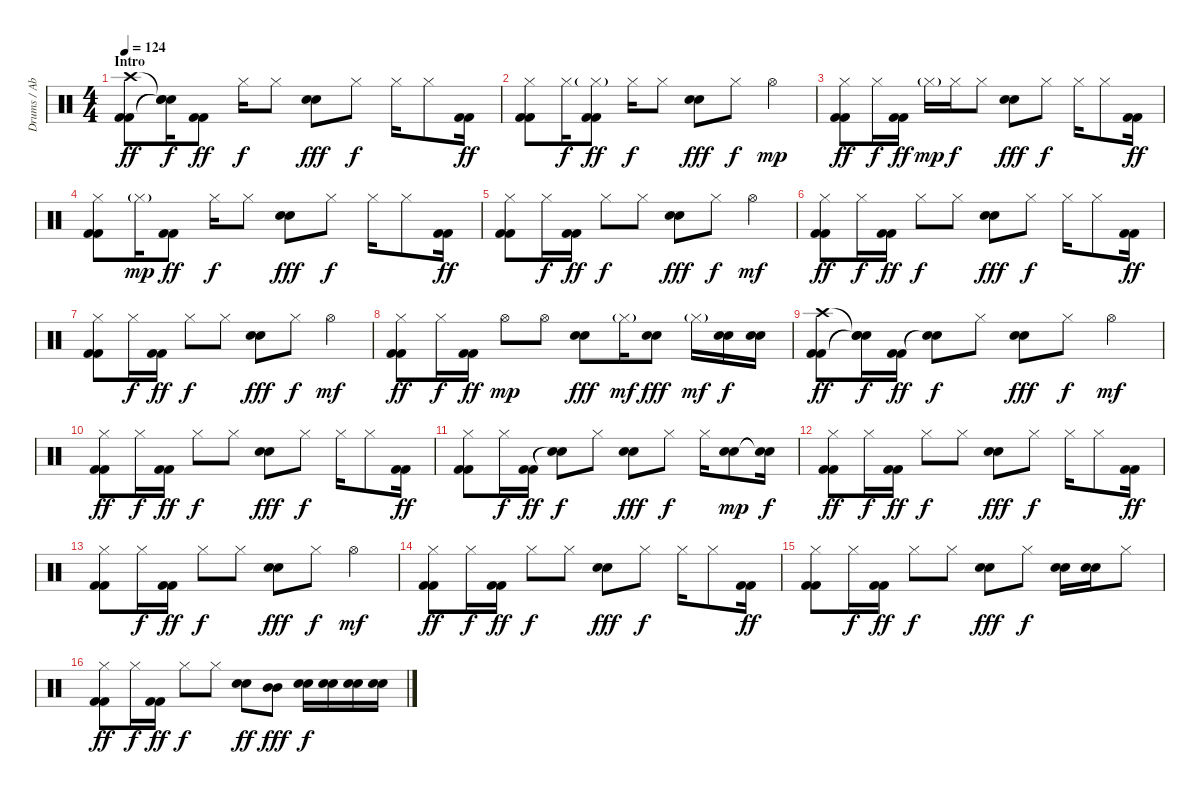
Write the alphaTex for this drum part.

\track ("Drums / Abe Cunningham" "Drums / Ab") {instrument percussion}
\staff {score}
\articulation defaults
\ts (4 4)
\section ("" "Intro")
\tempo 124
\clef neutral
\ks c
("Crash high (hit)" "Kick (hit) 2" "Kick (hit) 2").8{dy ff} ("Snare (hit)"{t} "Snare (hit)"{t} "Snare (hit)"{t}).16{dy f} ("Kick (hit) 2" "Kick (hit) 2").8{dy ff} "Hi-Hat (closed)".16{dy f} "Hi-Hat (closed)".8 ("Electric Snare (hit)" "Electric Snare (hit)").8{dy fff} "Hi-Hat (closed)".8{dy f} "Hi-Hat (closed)".16 "Hi-Hat (closed)".8 ("Kick (hit) 2" "Kick (hit) 2").16{dy ff} |
("Hi-Hat (closed)" "Kick (hit) 2" "Kick (hit) 2").8 "Hi-Hat (closed)".16{dy f} ("Hi-Hat (closed)"{g} "Kick (hit) 2" "Kick (hit) 2").8{dy ff} "Hi-Hat (closed)".16{dy f} "Hi-Hat (closed)".8 ("Electric Snare (hit)" "Electric Snare (hit)").8{dy fff} "Hi-Hat (closed)".8{dy f} "Hi-Hat (open)".4{dy mp} |
("Hi-Hat (closed)" "Kick (hit) 2" "Kick (hit) 2").8{dy ff} "Hi-Hat (closed)".16{dy f} ("Kick (hit) 2" "Kick (hit) 2").16{dy ff} "Hi-Hat (closed)"{g}.16{dy mp} "Hi-Hat (closed)".16{dy f} "Hi-Hat (closed)".8 ("Electric Snare (hit)" "Electric Snare (hit)").8{dy fff} "Hi-Hat (closed)".8{dy f} "Hi-Hat (closed)".16 "Hi-Hat (closed)".8 ("Kick (hit) 2" "Kick (hit) 2").16{dy ff} |
("Hi-Hat (closed)" "Kick (hit) 2" "Kick (hit) 2").8 "Hi-Hat (closed)"{g}.16{dy mp} ("Kick (hit) 2" "Kick (hit) 2").8{dy ff} "Hi-Hat (closed)".16{dy f} "Hi-Hat (closed)".8 ("Electric Snare (hit)" "Electric Snare (hit)").8{dy fff} "Hi-Hat (closed)".8{dy f} "Hi-Hat (closed)".16 "Hi-Hat (closed)".8 ("Kick (hit) 2" "Kick (hit) 2").16{dy ff} |
("Hi-Hat (closed)" "Kick (hit) 2" "Kick (hit) 2").8 "Hi-Hat (closed)".16{dy f} ("Kick (hit) 2" "Kick (hit) 2").16{dy ff} "Hi-Hat (closed)".8{dy f} "Hi-Hat (closed)".8 ("Electric Snare (hit)" "Electric Snare (hit)").8{dy fff} "Hi-Hat (closed)".8{dy f} "Hi-Hat (open)".4{dy mf} |
("Hi-Hat (closed)" "Kick (hit) 2" "Kick (hit) 2").8{dy ff} "Hi-Hat (closed)".16{dy f} ("Kick (hit) 2" "Kick (hit) 2").16{dy ff} "Hi-Hat (closed)".8{dy f} "Hi-Hat (closed)".8 ("Electric Snare (hit)" "Electric Snare (hit)").8{dy fff} "Hi-Hat (closed)".8{dy f} "Hi-Hat (closed)".16 "Hi-Hat (closed)".8 ("Kick (hit) 2" "Kick (hit) 2").16{dy ff} |
("Hi-Hat (closed)" "Kick (hit) 2" "Kick (hit) 2").8 "Hi-Hat (closed)".16{dy f} ("Kick (hit) 2" "Kick (hit) 2").16{dy ff} "Hi-Hat (closed)".8{dy f} "Hi-Hat (closed)".8 ("Electric Snare (hit)" "Electric Snare (hit)").8{dy fff} "Hi-Hat (closed)".8{dy f} "Hi-Hat (open)".4{dy mf} |
("Hi-Hat (closed)" "Kick (hit) 2" "Kick (hit) 2").8{dy ff} "Hi-Hat (closed)".16{dy f} ("Kick (hit) 2" "Kick (hit) 2").16{dy ff} "Hi-Hat (open)".8{dy mp} "Hi-Hat (open)".8 ("Electric Snare (hit)" "Electric Snare (hit)").8{dy fff} "Hi-Hat (closed)"{g}.16{dy mf} ("Electric Snare (hit)" "Electric Snare (hit)").8{dy fff} "Hi-Hat (closed)"{g}.16{dy mf} ("Electric Snare (hit)" "Electric Snare (hit)").16{dy f} ("Electric Snare (hit)" "Electric Snare (hit)").16 |
("Crash high (hit)" "Kick (hit) 2" "Kick (hit) 2").8{dy ff} ("Snare (hit)"{t} "Snare (hit)"{t} "Snare (hit)"{t}).16{dy f} ("Kick (hit) 2" "Kick (hit) 2").16{dy ff} ("Snare (hit)"{t} "Snare (hit)"{t}).8{dy f} "Hi-Hat (closed)".8 ("Electric Snare (hit)" "Electric Snare (hit)").8{dy fff} "Hi-Hat (closed)".8{dy f} "Hi-Hat (open)".4{dy mf} |
("Hi-Hat (closed)" "Kick (hit) 2" "Kick (hit) 2").8{dy ff} "Hi-Hat (closed)".16{dy f} ("Kick (hit) 2" "Kick (hit) 2").16{dy ff} "Hi-Hat (closed)".8{dy f} "Hi-Hat (closed)".8 ("Electric Snare (hit)" "Electric Snare (hit)").8{dy fff} "Hi-Hat (closed)".8{dy f} "Hi-Hat (closed)".16 "Hi-Hat (closed)".8 ("Kick (hit) 2" "Kick (hit) 2").16{dy ff} |
("Hi-Hat (closed)" "Kick (hit) 2" "Kick (hit) 2").8 "Hi-Hat (closed)".16{dy f} ("Kick (hit) 2" "Kick (hit) 2").16{dy ff} ("Snare (hit)"{t} "Snare (hit)"{t}).8{dy f} "Hi-Hat (closed)".8 ("Electric Snare (hit)" "Electric Snare (hit)").8{dy fff} "Hi-Hat (closed)".8{dy f} "Hi-Hat (closed)".16 ("Electric Snare (hit)" "Electric Snare (hit)").8{dy mp} ("Snare (hit)"{t} "Snare (hit)"{t}).16{dy f} |
("Hi-Hat (closed)" "Kick (hit) 2" "Kick (hit) 2").8{dy ff} "Hi-Hat (closed)".16{dy f} ("Kick (hit) 2" "Kick (hit) 2").16{dy ff} "Hi-Hat (closed)".8{dy f} "Hi-Hat (closed)".8 ("Electric Snare (hit)" "Electric Snare (hit)").8{dy fff} "Hi-Hat (closed)".8{dy f} "Hi-Hat (closed)".16 "Hi-Hat (closed)".8 ("Kick (hit) 2" "Kick (hit) 2").16{dy ff} |
("Hi-Hat (closed)" "Kick (hit) 2" "Kick (hit) 2").8 "Hi-Hat (closed)".16{dy f} ("Kick (hit) 2" "Kick (hit) 2").16{dy ff} "Hi-Hat (closed)".8{dy f} "Hi-Hat (closed)".8 ("Electric Snare (hit)" "Electric Snare (hit)").8{dy fff} "Hi-Hat (closed)".8{dy f} "Hi-Hat (open)".4{dy mf} |
("Hi-Hat (closed)" "Kick (hit) 2" "Kick (hit) 2").8{dy ff} "Hi-Hat (closed)".16{dy f} ("Kick (hit) 2" "Kick (hit) 2").16{dy ff} "Hi-Hat (closed)".8{dy f} "Hi-Hat (closed)".8 ("Electric Snare (hit)" "Electric Snare (hit)").8{dy fff} "Hi-Hat (closed)".8{dy f} "Hi-Hat (closed)".16 "Hi-Hat (closed)".8 ("Kick (hit) 2" "Kick (hit) 2").16{dy ff} |
("Hi-Hat (closed)" "Kick (hit) 2" "Kick (hit) 2").8 "Hi-Hat (closed)".16{dy f} ("Kick (hit) 2" "Kick (hit) 2").16{dy ff} "Hi-Hat (closed)".8{dy f} "Hi-Hat (closed)".8 ("Electric Snare (hit)" "Electric Snare (hit)").8{dy fff} "Hi-Hat (closed)".8{dy f} ("Electric Snare (hit)" "Electric Snare (hit)").16 ("Electric Snare (hit)" "Electric Snare (hit)").16 "Hi-Hat (closed)".8 |
("Hi-Hat (closed)" "Kick (hit) 2" "Kick (hit) 2").8{dy ff} "Hi-Hat (closed)".16{dy f} ("Kick (hit) 2" "Kick (hit) 2").16{dy ff} "Hi-Hat (closed)".8{dy f} "Hi-Hat (closed)".8 ("Electric Snare (hit)" "Electric Snare (hit)").8{dy ff} ("Mid Tom (hit)" "Mid Tom (hit)").8{dy fff} ("Electric Snare (hit)" "Electric Snare (hit)").16{dy f} ("Electric Snare (hit)" "Electric Snare (hit)").16 ("Electric Snare (hit)" "Electric Snare (hit)").16 ("Electric Snare (hit)" "Electric Snare (hit)").16
